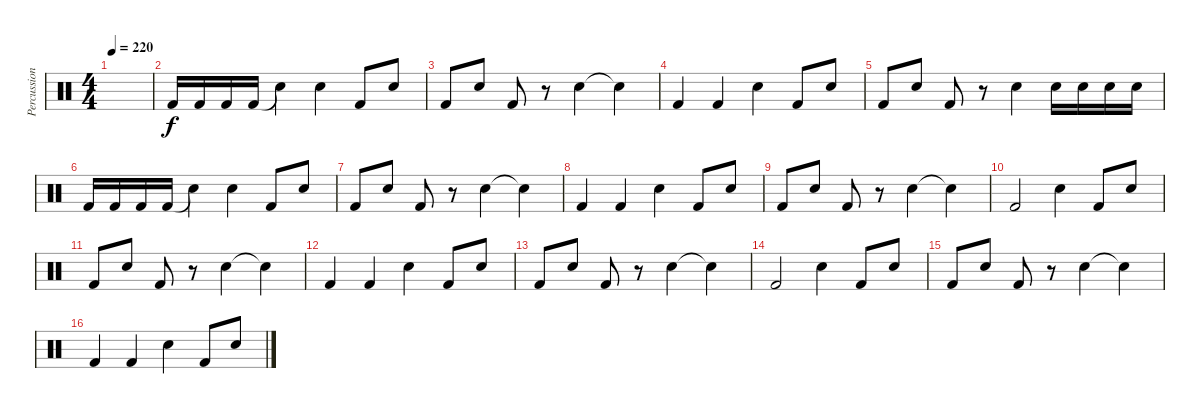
\track ("Percussions" "Percussion") {instrument percussion}
\staff {score}
\articulation defaults
\ts (4 4)
\tempo 220
\clef neutral
\ks c
|
"Kick (hit) 2".16 "Kick (hit) 2".16 "Kick (hit) 2".16 "Kick (hit) 2".16 "Snare (hit)"{t}.4 "Electric Snare (hit)".4 "Kick (hit) 2".8 "Electric Snare (hit)".8 |
"Kick (hit) 2".8 "Electric Snare (hit)".8 "Kick (hit) 2".8 r.8 "Electric Snare (hit)".4 "Snare (hit)"{t}.4 |
"Kick (hit) 2".4 "Kick (hit) 2".4 "Electric Snare (hit)".4 "Kick (hit) 2".8 "Electric Snare (hit)".8 |
"Kick (hit) 2".8 "Electric Snare (hit)".8 "Kick (hit) 2".8 r.8 "Electric Snare (hit)".4 "Electric Snare (hit)".16 "Electric Snare (hit)".16 "Electric Snare (hit)".16 "Electric Snare (hit)".16 |
"Kick (hit) 2".16 "Kick (hit) 2".16 "Kick (hit) 2".16 "Kick (hit) 2".16 "Snare (hit)"{t}.4 "Electric Snare (hit)".4 "Kick (hit) 2".8 "Electric Snare (hit)".8 |
"Kick (hit) 2".8 "Electric Snare (hit)".8 "Kick (hit) 2".8 r.8 "Electric Snare (hit)".4 "Snare (hit)"{t}.4 |
"Kick (hit) 2".4 "Kick (hit) 2".4 "Electric Snare (hit)".4 "Kick (hit) 2".8 "Electric Snare (hit)".8 |
"Kick (hit) 2".8 "Electric Snare (hit)".8 "Kick (hit) 2".8 r.8 "Electric Snare (hit)".4 "Electric Snare (hit)"{t}.4 |
"Kick (hit) 2".2 "Electric Snare (hit)".4 "Kick (hit) 2".8 "Electric Snare (hit)".8 |
"Kick (hit) 2".8 "Electric Snare (hit)".8 "Kick (hit) 2".8 r.8 "Electric Snare (hit)".4 "Snare (hit)"{t}.4 |
"Kick (hit) 2".4 "Kick (hit) 2".4 "Electric Snare (hit)".4 "Kick (hit) 2".8 "Electric Snare (hit)".8 |
"Kick (hit) 2".8 "Electric Snare (hit)".8 "Kick (hit) 2".8 r.8 "Electric Snare (hit)".4 "Electric Snare (hit)"{t}.4 |
"Kick (hit) 2".2 "Electric Snare (hit)".4 "Kick (hit) 2".8 "Electric Snare (hit)".8 |
"Kick (hit) 2".8 "Electric Snare (hit)".8 "Kick (hit) 2".8 r.8 "Electric Snare (hit)".4 "Snare (hit)"{t}.4 |
"Kick (hit) 2".4 "Kick (hit) 2".4 "Electric Snare (hit)".4 "Kick (hit) 2".8 "Electric Snare (hit)".8
